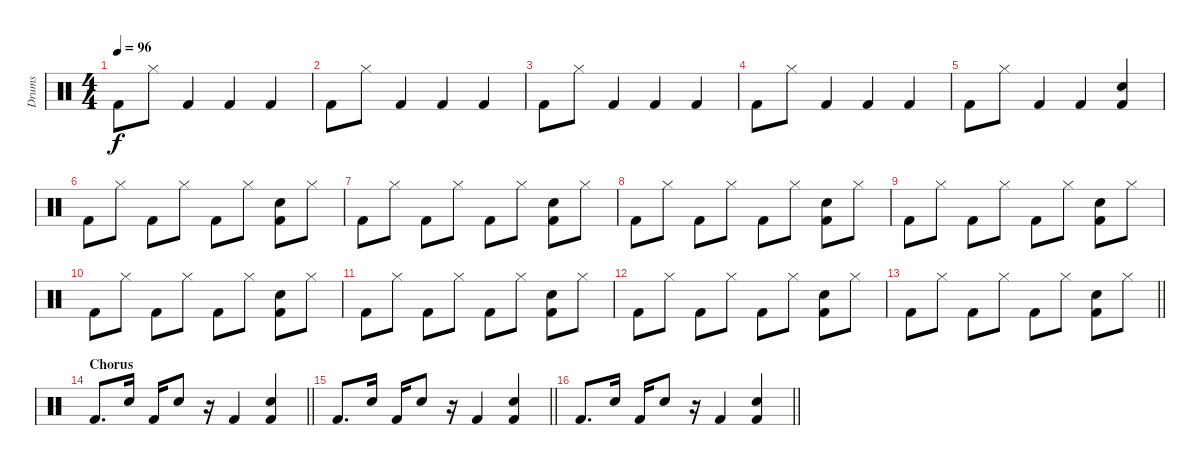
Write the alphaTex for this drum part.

\track ("Drums" "Drums") {instrument percussion}
\staff {score}
\articulation defaults
\ts (4 4)
\tempo 96
\clef neutral
\ks c "Kick (hit) 2".8{dy f} "Hi-Hat (closed)".8 "Kick (hit) 2".4 "Kick (hit) 2".4 "Kick (hit) 2".4
|
"Kick (hit) 2".8 "Hi-Hat (closed)".8 "Kick (hit) 2".4 "Kick (hit) 2".4 "Kick (hit) 2".4 |
"Kick (hit) 2".8 "Hi-Hat (closed)".8 "Kick (hit) 2".4 "Kick (hit) 2".4 "Kick (hit) 2".4 |
"Kick (hit) 2".8 "Hi-Hat (closed)".8 "Kick (hit) 2".4 "Kick (hit) 2".4 "Kick (hit) 2".4 |
"Kick (hit) 2".8 "Hi-Hat (closed)".8 "Kick (hit) 2".4 "Kick (hit) 2".4 ("Snare (hit) 2" "Kick (hit) 2").4 |
"Kick (hit) 2".8 "Hi-Hat (closed)".8 "Kick (hit) 2".8 "Hi-Hat (closed)".8 "Kick (hit) 2".8 "Hi-Hat (closed)".8 ("Snare (hit) 2" "Kick (hit) 2").8 "Hi-Hat (closed)".8 |
"Kick (hit) 2".8 "Hi-Hat (closed)".8 "Kick (hit) 2".8 "Hi-Hat (closed)".8 "Kick (hit) 2".8 "Hi-Hat (closed)".8 ("Snare (hit) 2" "Kick (hit) 2").8 "Hi-Hat (closed)".8 |
"Kick (hit) 2".8 "Hi-Hat (closed)".8 "Kick (hit) 2".8 "Hi-Hat (closed)".8 "Kick (hit) 2".8 "Hi-Hat (closed)".8 ("Snare (hit) 2" "Kick (hit) 2").8 "Hi-Hat (closed)".8 |
"Kick (hit) 2".8 "Hi-Hat (closed)".8 "Kick (hit) 2".8 "Hi-Hat (closed)".8 "Kick (hit) 2".8 "Hi-Hat (closed)".8 ("Snare (hit) 2" "Kick (hit) 2").8 "Hi-Hat (closed)".8 |
"Kick (hit) 2".8 "Hi-Hat (closed)".8 "Kick (hit) 2".8 "Hi-Hat (closed)".8 "Kick (hit) 2".8 "Hi-Hat (closed)".8 ("Snare (hit) 2" "Kick (hit) 2").8 "Hi-Hat (closed)".8 |
"Kick (hit) 2".8 "Hi-Hat (closed)".8 "Kick (hit) 2".8 "Hi-Hat (closed)".8 "Kick (hit) 2".8 "Hi-Hat (closed)".8 ("Snare (hit) 2" "Kick (hit) 2").8 "Hi-Hat (closed)".8 |
"Kick (hit) 2".8 "Hi-Hat (closed)".8 "Kick (hit) 2".8 "Hi-Hat (closed)".8 "Kick (hit) 2".8 "Hi-Hat (closed)".8 ("Snare (hit) 2" "Kick (hit) 2").8 "Hi-Hat (closed)".8 |
\barLineRight lightlight "Kick (hit) 2".8 "Hi-Hat (closed)".8 "Kick (hit) 2".8 "Hi-Hat (closed)".8 "Kick (hit) 2".8 "Hi-Hat (closed)".8
("Snare (hit) 2" "Kick (hit) 2").8 "Hi-Hat (closed)".8 |
\section ("" "Chorus")
\barLineRight lightlight "Kick (hit) 2".8{d} "Snare (hit) 2".16 "Kick (hit) 2".16 "Snare (hit) 2".8
r.16 "Kick (hit) 2".4 ("Snare (hit) 2" "Kick (hit) 2").4 |
\barLineRight lightlight "Kick (hit) 2".8{d} "Snare (hit) 2".16 "Kick (hit) 2".16 "Snare (hit) 2".8
r.16 "Kick (hit) 2".4 ("Snare (hit) 2" "Kick (hit) 2").4 |
\barLineRight lightlight "Kick (hit) 2".8{d} "Snare (hit) 2".16 "Kick (hit) 2".16 "Snare (hit) 2".8
r.16 "Kick (hit) 2".4 ("Snare (hit) 2" "Kick (hit) 2").4
